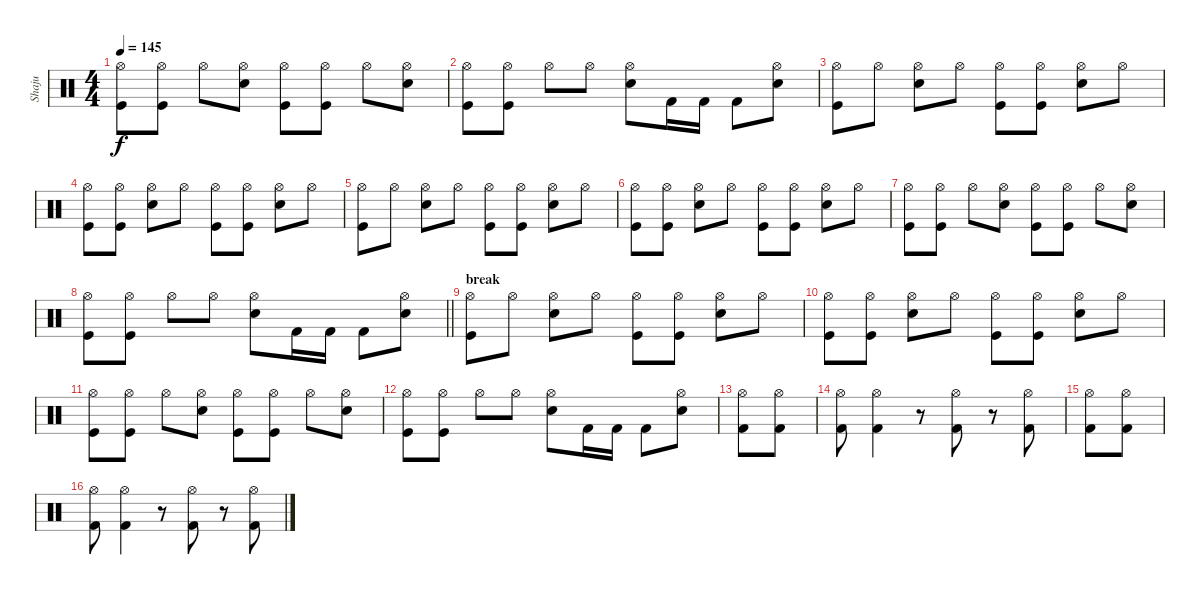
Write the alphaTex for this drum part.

\track ("Shaju" "Shaju") {instrument percussion}
\staff {score}
\articulation defaults
\ts (4 4)
\tempo 145
\clef neutral
\ks c
("Hi-Hat (open)" "Kick (hit)").8{dy f} ("Hi-Hat (open)" "Kick (hit)").8 "Hi-Hat (open)".8 ("Hi-Hat (open)" "Electric Snare (hit)").8 ("Hi-Hat (open)" "Kick (hit)").8 ("Hi-Hat (open)" "Kick (hit)").8 "Hi-Hat (open)".8 ("Hi-Hat (open)" "Electric Snare (hit)").8 |
("Hi-Hat (open)" "Kick (hit)").8 ("Hi-Hat (open)" "Kick (hit)").8 "Hi-Hat (open)".8 "Hi-Hat (open)".8 ("Hi-Hat (open)" "Electric Snare (hit)").8 "Kick (hit) 2".16 "Kick (hit) 2".16 "Kick (hit) 2".8 ("Hi-Hat (open)" "Electric Snare (hit)").8 |
("Hi-Hat (open)" "Kick (hit)").8 "Hi-Hat (open)".8 ("Hi-Hat (open)" "Electric Snare (hit)").8 "Hi-Hat (open)".8 ("Hi-Hat (open)" "Kick (hit)").8 ("Hi-Hat (open)" "Kick (hit)").8 ("Hi-Hat (open)" "Electric Snare (hit)").8 "Hi-Hat (open)".8 |
("Hi-Hat (open)" "Kick (hit)").8 ("Hi-Hat (open)" "Kick (hit)").8 ("Hi-Hat (open)" "Electric Snare (hit)").8 "Hi-Hat (open)".8 ("Hi-Hat (open)" "Kick (hit)").8 ("Hi-Hat (open)" "Kick (hit)").8 ("Hi-Hat (open)" "Electric Snare (hit)").8 "Hi-Hat (open)".8 |
("Hi-Hat (open)" "Kick (hit)").8 "Hi-Hat (open)".8 ("Hi-Hat (open)" "Electric Snare (hit)").8 "Hi-Hat (open)".8 ("Hi-Hat (open)" "Kick (hit)").8 ("Hi-Hat (open)" "Kick (hit)").8 ("Hi-Hat (open)" "Electric Snare (hit)").8 "Hi-Hat (open)".8 |
("Hi-Hat (open)" "Kick (hit)").8 ("Hi-Hat (open)" "Kick (hit)").8 ("Hi-Hat (open)" "Electric Snare (hit)").8 "Hi-Hat (open)".8 ("Hi-Hat (open)" "Kick (hit)").8 ("Hi-Hat (open)" "Kick (hit)").8 ("Hi-Hat (open)" "Electric Snare (hit)").8 "Hi-Hat (open)".8 |
("Hi-Hat (open)" "Kick (hit)").8 ("Hi-Hat (open)" "Kick (hit)").8 "Hi-Hat (open)".8 ("Hi-Hat (open)" "Electric Snare (hit)").8 ("Hi-Hat (open)" "Kick (hit)").8 ("Hi-Hat (open)" "Kick (hit)").8 "Hi-Hat (open)".8 ("Hi-Hat (open)" "Electric Snare (hit)").8 |
\barLineRight lightlight
("Hi-Hat (open)" "Kick (hit)").8 ("Hi-Hat (open)" "Kick (hit)").8 "Hi-Hat (open)".8 "Hi-Hat (open)".8 ("Hi-Hat (open)" "Electric Snare (hit)").8 "Kick (hit) 2".16 "Kick (hit) 2".16 "Kick (hit) 2".8 ("Hi-Hat (open)" "Electric Snare (hit)").8 |
\section ("" "break")
("Hi-Hat (open)" "Kick (hit)").8 "Hi-Hat (open)".8 ("Hi-Hat (open)" "Electric Snare (hit)").8 "Hi-Hat (open)".8 ("Hi-Hat (open)" "Kick (hit)").8 ("Hi-Hat (open)" "Kick (hit)").8 ("Hi-Hat (open)" "Electric Snare (hit)").8 "Hi-Hat (open)".8 |
("Hi-Hat (open)" "Kick (hit)").8 ("Hi-Hat (open)" "Kick (hit)").8 ("Hi-Hat (open)" "Electric Snare (hit)").8 "Hi-Hat (open)".8 ("Hi-Hat (open)" "Kick (hit)").8 ("Hi-Hat (open)" "Kick (hit)").8 ("Hi-Hat (open)" "Electric Snare (hit)").8 "Hi-Hat (open)".8 |
("Hi-Hat (open)" "Kick (hit)").8 ("Hi-Hat (open)" "Kick (hit)").8 "Hi-Hat (open)".8 ("Hi-Hat (open)" "Electric Snare (hit)").8 ("Hi-Hat (open)" "Kick (hit)").8 ("Hi-Hat (open)" "Kick (hit)").8 "Hi-Hat (open)".8 ("Hi-Hat (open)" "Electric Snare (hit)").8 |
("Hi-Hat (open)" "Kick (hit)").8 ("Hi-Hat (open)" "Kick (hit)").8 "Hi-Hat (open)".8 "Hi-Hat (open)".8 ("Hi-Hat (open)" "Electric Snare (hit)").8 "Kick (hit) 2".16 "Kick (hit) 2".16 "Kick (hit) 2".8 ("Hi-Hat (open)" "Electric Snare (hit)").8 |
("Hi-Hat (open)" "Kick (hit) 2").8 ("Hi-Hat (open)" "Kick (hit) 2").8 |
("Hi-Hat (open)" "Kick (hit) 2").8 ("Hi-Hat (open)" "Kick (hit) 2").4 r.8 ("Hi-Hat (open)" "Kick (hit) 2").8 r.8 ("Hi-Hat (open)" "Kick (hit) 2").8 |
("Hi-Hat (open)" "Kick (hit) 2").8 ("Hi-Hat (open)" "Kick (hit) 2").8 |
("Hi-Hat (open)" "Kick (hit) 2").8 ("Hi-Hat (open)" "Kick (hit) 2").4 r.8 ("Hi-Hat (open)" "Kick (hit) 2").8 r.8 ("Hi-Hat (open)" "Kick (hit) 2").8
